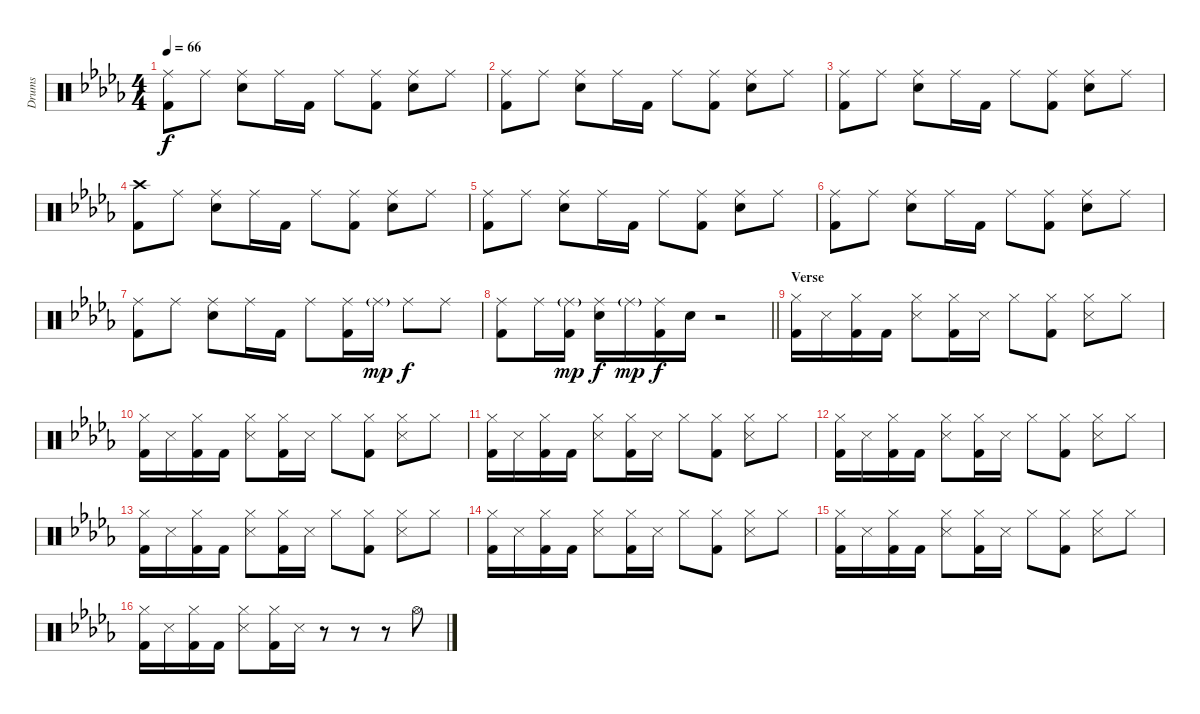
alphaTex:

\track ("Drums" "Drums") {instrument percussion}
\staff {score}
\articulation defaults
\ts (4 4)
\tempo 66
\clef neutral
\ks db
("Kick (hit) 2" "Ride (middle)").8{dy f} "Ride (middle)".8 ("Ride (middle)" "Snare (hit) 2").8 "Ride (middle)".16 "Kick (hit) 2".16 "Ride (middle)".8 ("Kick (hit) 2" "Ride (middle)").8 ("Ride (middle)" "Snare (hit) 2").8 "Ride (middle)".8 |
("Kick (hit) 2" "Ride (middle)").8 "Ride (middle)".8 ("Ride (middle)" "Snare (hit) 2").8 "Ride (middle)".16 "Kick (hit) 2".16 "Ride (middle)".8 ("Kick (hit) 2" "Ride (middle)").8 ("Ride (middle)" "Snare (hit) 2").8 "Ride (middle)".8 |
("Kick (hit) 2" "Ride (middle)").8 "Ride (middle)".8 ("Ride (middle)" "Snare (hit) 2").8 "Ride (middle)".16 "Kick (hit) 2".16 "Ride (middle)".8 ("Kick (hit) 2" "Ride (middle)").8 ("Ride (middle)" "Snare (hit) 2").8 "Ride (middle)".8 |
("Kick (hit) 2" "Crash high (hit)").8 "Ride (middle)".8 ("Ride (middle)" "Snare (hit) 2").8 "Ride (middle)".16 "Kick (hit) 2".16 "Ride (middle)".8 ("Kick (hit) 2" "Ride (middle)").8 ("Ride (middle)" "Snare (hit) 2").8 "Ride (middle)".8 |
("Kick (hit) 2" "Ride (middle)").8 "Ride (middle)".8 ("Ride (middle)" "Snare (hit) 2").8 "Ride (middle)".16 "Kick (hit) 2".16 "Ride (middle)".8 ("Kick (hit) 2" "Ride (middle)").8 ("Ride (middle)" "Snare (hit) 2").8 "Ride (middle)".8 |
("Kick (hit) 2" "Ride (middle)").8 "Ride (middle)".8 ("Ride (middle)" "Snare (hit) 2").8 "Ride (middle)".16 "Kick (hit) 2".16 "Ride (middle)".8 ("Kick (hit) 2" "Ride (middle)").8 ("Ride (middle)" "Snare (hit) 2").8 "Ride (middle)".8 |
("Kick (hit) 2" "Ride (middle)").8 "Ride (middle)".8 ("Ride (middle)" "Snare (hit) 2").8 "Ride (middle)".16 "Kick (hit) 2".16 "Ride (middle)".8 ("Kick (hit) 2" "Ride (middle)").16 "Ride (middle)"{g}.16{dy mp} "Ride (middle)".8{dy f} "Ride (middle)".8 |
\barLineRight lightlight
("Kick (hit) 2" "Ride (middle)").8 "Ride (middle)".16 ("Kick (hit) 2" "Ride (middle)"{g}).16{dy mp} ("Ride (middle)" "Snare (hit) 2").16{dy f} "Ride (middle)"{g}.16{dy mp} ("Kick (hit) 2" "Ride (middle)").16{dy f} "Snare (hit) 2".16 r.2 |
\section ("" "Verse")
("Kick (hit) 2" "Hi-Hat (closed)").16 "Snare (side stick) 3".16 ("Kick (hit) 2" "Hi-Hat (closed)").16 "Kick (hit) 2".16 ("Snare (side stick) 3" "Hi-Hat (closed)").8 ("Kick (hit) 2" "Hi-Hat (closed)").16 "Snare (side stick) 3".16 "Hi-Hat (closed)".8 ("Kick (hit) 2" "Hi-Hat (closed)").8 ("Snare (side stick) 3" "Hi-Hat (closed)").8 "Hi-Hat (closed)".8 |
("Kick (hit) 2" "Hi-Hat (closed)").16 "Snare (side stick) 3".16 ("Kick (hit) 2" "Hi-Hat (closed)").16 "Kick (hit) 2".16 ("Snare (side stick) 3" "Hi-Hat (closed)").8 ("Kick (hit) 2" "Hi-Hat (closed)").16 "Snare (side stick) 3".16 "Hi-Hat (closed)".8 ("Kick (hit) 2" "Hi-Hat (closed)").8 ("Snare (side stick) 3" "Hi-Hat (closed)").8 "Hi-Hat (closed)".8 |
("Kick (hit) 2" "Hi-Hat (closed)").16 "Snare (side stick) 3".16 ("Kick (hit) 2" "Hi-Hat (closed)").16 "Kick (hit) 2".16 ("Snare (side stick) 3" "Hi-Hat (closed)").8 ("Kick (hit) 2" "Hi-Hat (closed)").16 "Snare (side stick) 3".16 "Hi-Hat (closed)".8 ("Kick (hit) 2" "Hi-Hat (closed)").8 ("Snare (side stick) 3" "Hi-Hat (closed)").8 "Hi-Hat (closed)".8 |
("Kick (hit) 2" "Hi-Hat (closed)").16 "Snare (side stick) 3".16 ("Kick (hit) 2" "Hi-Hat (closed)").16 "Kick (hit) 2".16 ("Snare (side stick) 3" "Hi-Hat (closed)").8 ("Kick (hit) 2" "Hi-Hat (closed)").16 "Snare (side stick) 3".16 "Hi-Hat (closed)".8 ("Kick (hit) 2" "Hi-Hat (closed)").8 ("Snare (side stick) 3" "Hi-Hat (closed)").8 "Hi-Hat (closed)".8 |
("Kick (hit) 2" "Hi-Hat (closed)").16 "Snare (side stick) 3".16 ("Kick (hit) 2" "Hi-Hat (closed)").16 "Kick (hit) 2".16 ("Snare (side stick) 3" "Hi-Hat (closed)").8 ("Kick (hit) 2" "Hi-Hat (closed)").16 "Snare (side stick) 3".16 "Hi-Hat (closed)".8 ("Kick (hit) 2" "Hi-Hat (closed)").8 ("Snare (side stick) 3" "Hi-Hat (closed)").8 "Hi-Hat (closed)".8 |
("Kick (hit) 2" "Hi-Hat (closed)").16 "Snare (side stick) 3".16 ("Kick (hit) 2" "Hi-Hat (closed)").16 "Kick (hit) 2".16 ("Snare (side stick) 3" "Hi-Hat (closed)").8 ("Kick (hit) 2" "Hi-Hat (closed)").16 "Snare (side stick) 3".16 "Hi-Hat (closed)".8 ("Kick (hit) 2" "Hi-Hat (closed)").8 ("Snare (side stick) 3" "Hi-Hat (closed)").8 "Hi-Hat (closed)".8 |
("Kick (hit) 2" "Hi-Hat (closed)").16 "Snare (side stick) 3".16 ("Kick (hit) 2" "Hi-Hat (closed)").16 "Kick (hit) 2".16 ("Snare (side stick) 3" "Hi-Hat (closed)").8 ("Kick (hit) 2" "Hi-Hat (closed)").16 "Snare (side stick) 3".16 "Hi-Hat (closed)".8 ("Kick (hit) 2" "Hi-Hat (closed)").8 ("Snare (side stick) 3" "Hi-Hat (closed)").8 "Hi-Hat (closed)".8 |
("Kick (hit) 2" "Hi-Hat (closed)").16 "Snare (side stick) 3".16 ("Kick (hit) 2" "Hi-Hat (closed)").16 "Kick (hit) 2".16 ("Snare (side stick) 3" "Hi-Hat (closed)").8 ("Kick (hit) 2" "Hi-Hat (closed)").16 "Snare (side stick) 3".16 r.8 r.8 r.8 "Hi-Hat (open)".8
